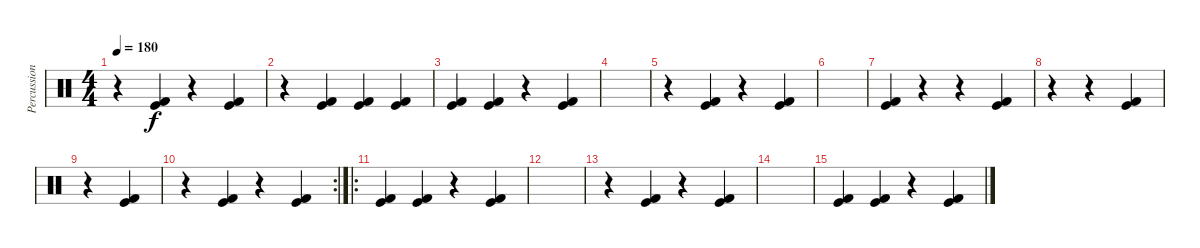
\track ("Percussion" "Percussion") {instrument percussion}
\staff {score}
\articulation defaults
\ts (4 4)
\tempo 180
\clef neutral
\ks c
r.4{dy f} ("Kick (hit) 2" "Kick (hit)").4 r.4 ("Kick (hit) 2" "Kick (hit)").4 |
r.4 ("Kick (hit) 2" "Kick (hit)").4 ("Kick (hit) 2" "Kick (hit)").4 ("Kick (hit) 2" "Kick (hit)").4 |
("Kick (hit) 2" "Kick (hit)").4 ("Kick (hit) 2" "Kick (hit)").4 r.4 ("Kick (hit) 2" "Kick (hit)").4 |
|
r.4 ("Kick (hit) 2" "Kick (hit)").4 r.4 ("Kick (hit) 2" "Kick (hit)").4 |
|
("Kick (hit) 2" "Kick (hit)").4 r.4 r.4 ("Kick (hit) 2" "Kick (hit)").4 |
r.4 r.4 ("Kick (hit) 2" "Kick (hit)").4 |
r.4 ("Kick (hit) 2" "Kick (hit)").4 |
\rc 2
r.4 ("Kick (hit) 2" "Kick (hit)").4 r.4 ("Kick (hit) 2" "Kick (hit)").4 |
\ro
("Kick (hit) 2" "Kick (hit)").4 ("Kick (hit) 2" "Kick (hit)").4 r.4 ("Kick (hit) 2" "Kick (hit)").4 |
|
r.4 ("Kick (hit) 2" "Kick (hit)").4 r.4 ("Kick (hit) 2" "Kick (hit)").4 |
|
("Kick (hit) 2" "Kick (hit)").4 ("Kick (hit) 2" "Kick (hit)").4 r.4 ("Kick (hit) 2" "Kick (hit)").4
